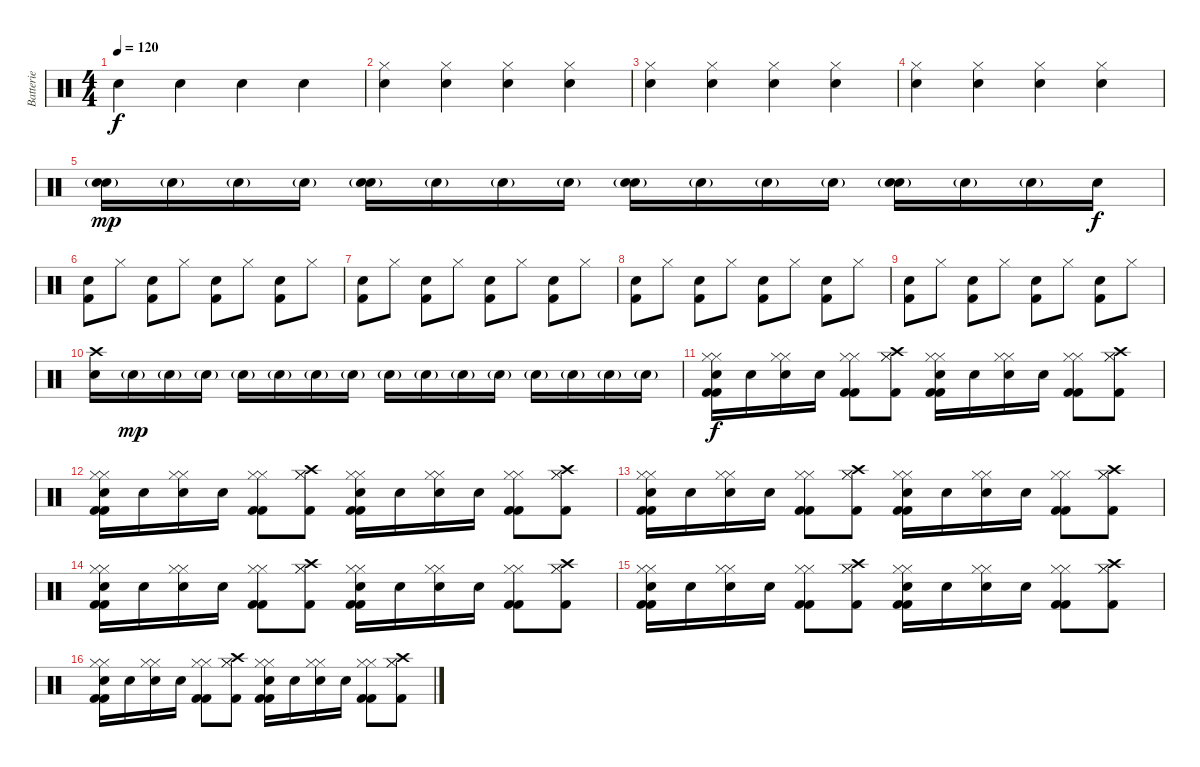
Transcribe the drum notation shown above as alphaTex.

\track ("Batterie" "Batterie") {instrument percussion}
\staff {score}
\articulation defaults
\ts (4 4)
\tempo 120
\clef neutral
\ks c "Electric Snare (hit)".4{dy f} "Snare (hit) 2".4 "Electric Snare (hit)".4 "Snare (hit) 2".4
|
("Hi-Hat (closed)" "Electric Snare (hit)").4 ("Hi-Hat (closed)" "Snare (hit) 2").4 ("Hi-Hat (closed)" "Electric Snare (hit)").4 ("Hi-Hat (closed)" "Snare (hit) 2").4 |
("Hi-Hat (closed)" "Electric Snare (hit)").4 ("Hi-Hat (closed)" "Snare (hit) 2").4 ("Hi-Hat (closed)" "Electric Snare (hit)").4 ("Hi-Hat (closed)" "Snare (hit) 2").4 |
("Hi-Hat (closed)" "Electric Snare (hit)").4 ("Hi-Hat (closed)" "Snare (hit) 2").4 ("Hi-Hat (closed)" "Electric Snare (hit)").4 ("Hi-Hat (closed)" "Snare (hit) 2").4 |
("Electric Snare (hit)" "Snare (hit) 2"{g}).16{dy mp} "Snare (hit) 2"{g}.16 "Snare (hit) 2"{g}.16 "Snare (hit) 2"{g}.16 ("Electric Snare (hit)" "Snare (hit) 2"{g}).16 "Snare (hit) 2"{g}.16 "Snare (hit) 2"{g}.16 "Snare (hit) 2"{g}.16 ("Electric Snare (hit)" "Snare (hit) 2"{g}).16 "Snare (hit) 2"{g}.16 "Snare (hit) 2"{g}.16 "Snare (hit) 2"{g}.16 ("Electric Snare (hit)" "Snare (hit) 2"{g}).16 "Snare (hit) 2"{g}.16 "Snare (hit) 2"{g}.16 "Snare (hit) 2".16{dy f} |
("Kick (hit) 2" "Electric Snare (hit)").8 "Hi-Hat (closed)".8 ("Kick (hit) 2" "Snare (hit) 2").8 "Hi-Hat (closed)".8 ("Kick (hit) 2" "Electric Snare (hit)").8 "Hi-Hat (closed)".8 ("Kick (hit) 2" "Snare (hit) 2").8 "Hi-Hat (closed)".8 |
("Kick (hit) 2" "Electric Snare (hit)").8 "Hi-Hat (closed)".8 ("Kick (hit) 2" "Snare (hit) 2").8 "Hi-Hat (closed)".8 ("Kick (hit) 2" "Electric Snare (hit)").8 "Hi-Hat (closed)".8 ("Kick (hit) 2" "Snare (hit) 2").8 "Hi-Hat (closed)".8 |
("Kick (hit) 2" "Electric Snare (hit)").8 "Hi-Hat (closed)".8 ("Kick (hit) 2" "Snare (hit) 2").8 "Hi-Hat (closed)".8 ("Kick (hit) 2" "Electric Snare (hit)").8 "Hi-Hat (closed)".8 ("Kick (hit) 2" "Snare (hit) 2").8 "Hi-Hat (closed)".8 |
("Kick (hit) 2" "Electric Snare (hit)").8 "Hi-Hat (closed)".8 ("Kick (hit) 2" "Snare (hit) 2").8 "Hi-Hat (closed)".8 ("Kick (hit) 2" "Electric Snare (hit)").8 "Hi-Hat (closed)".8 ("Kick (hit) 2" "Snare (hit) 2").8 "Hi-Hat (closed)".8 |
("Crash high (hit)" "Snare (hit) 2").16 "Electric Snare (hit)"{g}.16{dy mp} "Electric Snare (hit)"{g}.16 "Electric Snare (hit)"{g}.16 "Electric Snare (hit)"{g}.16 "Electric Snare (hit)"{g}.16 "Electric Snare (hit)"{g}.16 "Electric Snare (hit)"{g}.16 "Electric Snare (hit)"{g}.16 "Electric Snare (hit)"{g}.16 "Electric Snare (hit)"{g}.16 "Electric Snare (hit)"{g}.16 "Electric Snare (hit)"{g}.16 "Electric Snare (hit)"{g}.16 "Electric Snare (hit)"{g}.16 "Electric Snare (hit)"{g}.16 |
("Snare (hit) 2" "Kick (hit) 2" "Kick (hit) 2" "Hi-Hat (closed)" "Hi-Hat (closed)").16{dy f} "Snare (hit) 2".16 ("Snare (hit) 2" "Hi-Hat (closed)" "Hi-Hat (closed)").16 "Snare (hit) 2".16 ("Kick (hit) 2" "Kick (hit) 2" "Hi-Hat (closed)" "Hi-Hat (closed)").8 ("Crash high (hit)" "Kick (hit) 2" "Hi-Hat (closed)" "Hi-Hat (closed)").8 ("Electric Snare (hit)" "Kick (hit) 2" "Kick (hit) 2" "Hi-Hat (closed)" "Hi-Hat (closed)").16 "Electric Snare (hit)".16 ("Electric Snare (hit)" "Hi-Hat (closed)" "Hi-Hat (closed)").16 "Electric Snare (hit)".16 ("Kick (hit) 2" "Kick (hit) 2" "Hi-Hat (closed)" "Hi-Hat (closed)").8 ("Crash high (hit)" "Kick (hit) 2" "Hi-Hat (closed)" "Hi-Hat (closed)").8 |
("Snare (hit) 2" "Kick (hit) 2" "Kick (hit) 2" "Hi-Hat (closed)" "Hi-Hat (closed)").16 "Snare (hit) 2".16 ("Snare (hit) 2" "Hi-Hat (closed)" "Hi-Hat (closed)").16 "Snare (hit) 2".16 ("Kick (hit) 2" "Kick (hit) 2" "Hi-Hat (closed)" "Hi-Hat (closed)").8 ("Crash high (hit)" "Kick (hit) 2" "Hi-Hat (closed)" "Hi-Hat (closed)").8 ("Electric Snare (hit)" "Kick (hit) 2" "Kick (hit) 2" "Hi-Hat (closed)" "Hi-Hat (closed)").16 "Electric Snare (hit)".16 ("Electric Snare (hit)" "Hi-Hat (closed)" "Hi-Hat (closed)").16 "Electric Snare (hit)".16 ("Kick (hit) 2" "Kick (hit) 2" "Hi-Hat (closed)" "Hi-Hat (closed)").8 ("Crash high (hit)" "Kick (hit) 2" "Hi-Hat (closed)" "Hi-Hat (closed)").8 |
("Snare (hit) 2" "Kick (hit) 2" "Kick (hit) 2" "Hi-Hat (closed)" "Hi-Hat (closed)").16 "Snare (hit) 2".16 ("Snare (hit) 2" "Hi-Hat (closed)" "Hi-Hat (closed)").16 "Snare (hit) 2".16 ("Kick (hit) 2" "Kick (hit) 2" "Hi-Hat (closed)" "Hi-Hat (closed)").8 ("Crash high (hit)" "Kick (hit) 2" "Hi-Hat (closed)" "Hi-Hat (closed)").8 ("Electric Snare (hit)" "Kick (hit) 2" "Kick (hit) 2" "Hi-Hat (closed)" "Hi-Hat (closed)").16 "Electric Snare (hit)".16 ("Electric Snare (hit)" "Hi-Hat (closed)" "Hi-Hat (closed)").16 "Electric Snare (hit)".16 ("Kick (hit) 2" "Kick (hit) 2" "Hi-Hat (closed)" "Hi-Hat (closed)").8 ("Crash high (hit)" "Kick (hit) 2" "Hi-Hat (closed)" "Hi-Hat (closed)").8 |
("Snare (hit) 2" "Kick (hit) 2" "Kick (hit) 2" "Hi-Hat (closed)" "Hi-Hat (closed)").16 "Snare (hit) 2".16 ("Snare (hit) 2" "Hi-Hat (closed)" "Hi-Hat (closed)").16 "Snare (hit) 2".16 ("Kick (hit) 2" "Kick (hit) 2" "Hi-Hat (closed)" "Hi-Hat (closed)").8 ("Crash high (hit)" "Kick (hit) 2" "Hi-Hat (closed)" "Hi-Hat (closed)").8 ("Electric Snare (hit)" "Kick (hit) 2" "Kick (hit) 2" "Hi-Hat (closed)" "Hi-Hat (closed)").16 "Electric Snare (hit)".16 ("Electric Snare (hit)" "Hi-Hat (closed)" "Hi-Hat (closed)").16 "Electric Snare (hit)".16 ("Kick (hit) 2" "Kick (hit) 2" "Hi-Hat (closed)" "Hi-Hat (closed)").8 ("Crash high (hit)" "Kick (hit) 2" "Hi-Hat (closed)" "Hi-Hat (closed)").8 |
("Snare (hit) 2" "Kick (hit) 2" "Kick (hit) 2" "Hi-Hat (closed)" "Hi-Hat (closed)").16 "Snare (hit) 2".16 ("Snare (hit) 2" "Hi-Hat (closed)" "Hi-Hat (closed)").16 "Snare (hit) 2".16 ("Kick (hit) 2" "Kick (hit) 2" "Hi-Hat (closed)" "Hi-Hat (closed)").8 ("Crash high (hit)" "Kick (hit) 2" "Hi-Hat (closed)" "Hi-Hat (closed)").8 ("Electric Snare (hit)" "Kick (hit) 2" "Kick (hit) 2" "Hi-Hat (closed)" "Hi-Hat (closed)").16 "Electric Snare (hit)".16 ("Electric Snare (hit)" "Hi-Hat (closed)" "Hi-Hat (closed)").16 "Electric Snare (hit)".16 ("Kick (hit) 2" "Kick (hit) 2" "Hi-Hat (closed)" "Hi-Hat (closed)").8 ("Crash high (hit)" "Kick (hit) 2" "Hi-Hat (closed)" "Hi-Hat (closed)").8 |
("Snare (hit) 2" "Kick (hit) 2" "Kick (hit) 2" "Hi-Hat (closed)" "Hi-Hat (closed)").16 "Snare (hit) 2".16 ("Snare (hit) 2" "Hi-Hat (closed)" "Hi-Hat (closed)").16 "Snare (hit) 2".16 ("Kick (hit) 2" "Kick (hit) 2" "Hi-Hat (closed)" "Hi-Hat (closed)").8 ("Crash high (hit)" "Kick (hit) 2" "Hi-Hat (closed)" "Hi-Hat (closed)").8 ("Electric Snare (hit)" "Kick (hit) 2" "Kick (hit) 2" "Hi-Hat (closed)" "Hi-Hat (closed)").16 "Electric Snare (hit)".16 ("Electric Snare (hit)" "Hi-Hat (closed)" "Hi-Hat (closed)").16 "Electric Snare (hit)".16 ("Kick (hit) 2" "Kick (hit) 2" "Hi-Hat (closed)" "Hi-Hat (closed)").8 ("Crash high (hit)" "Kick (hit) 2" "Hi-Hat (closed)" "Hi-Hat (closed)").8
